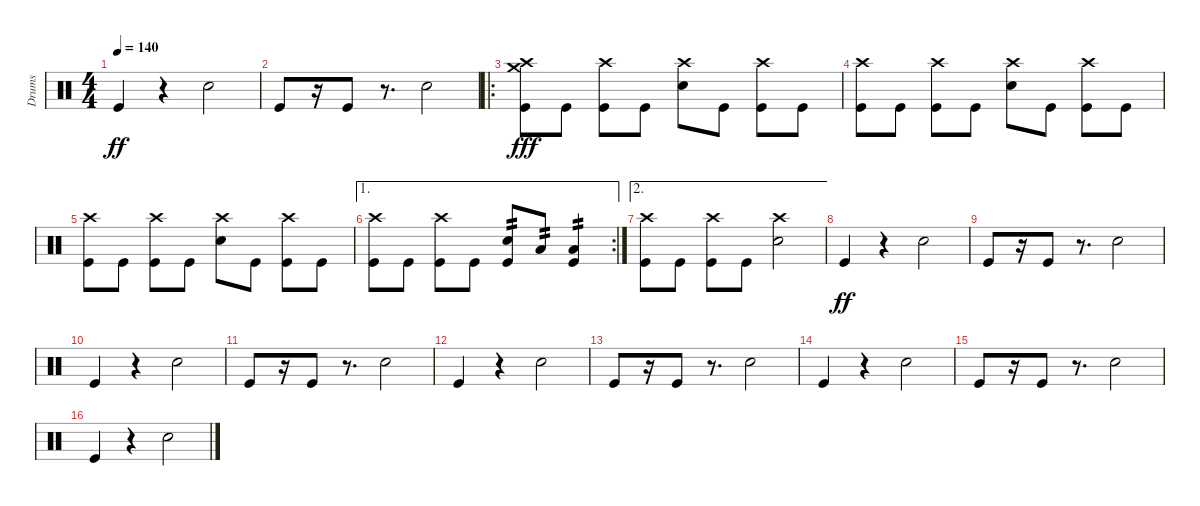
\track ("Drums" "Drums") {instrument percussion}
\staff {score}
\articulation defaults
\ts (4 4)
\tempo 140
\clef neutral
\ks c "Kick (hit)".4{dy ff}
r.4 "Electric Snare (hit)".2 |
"Kick (hit)".8 r.16 "Kick (hit)".8 r.8{d} "Electric Snare (hit)".2 |
\ro
("Crash medium (hit)" "Crash high (hit)" "Kick (hit)").8{dy fff} "Kick (hit)".8 ("Crash high (hit)" "Kick (hit)").8 "Kick (hit)".8 ("Crash high (hit)" "Electric Snare (hit)").8 "Kick (hit)".8 ("Crash high (hit)" "Kick (hit)").8 "Kick (hit)".8 |
("Crash high (hit)" "Kick (hit)").8 "Kick (hit)".8 ("Crash high (hit)" "Kick (hit)").8 "Kick (hit)".8 ("Crash high (hit)" "Electric Snare (hit)").8 "Kick (hit)".8 ("Crash high (hit)" "Kick (hit)").8 "Kick (hit)".8 |
("Crash high (hit)" "Kick (hit)").8 "Kick (hit)".8 ("Crash high (hit)" "Kick (hit)").8 "Kick (hit)".8 ("Crash high (hit)" "Electric Snare (hit)").8 "Kick (hit)".8 ("Crash high (hit)" "Kick (hit)").8 "Kick (hit)".8 |
\ae 1
\rc 2
("Crash high (hit)" "Kick (hit)").8 "Kick (hit)".8 ("Crash high (hit)" "Kick (hit)").8 "Kick (hit)".8 ("Electric Snare (hit)" "Kick (hit)").8{tp 2} "Low Floor Tom (hit)".8{tp 2} ("Low Floor Tom (hit)" "Kick (hit)").4{tp 2} |
\ae 2
("Crash high (hit)" "Kick (hit)").8 "Kick (hit)".8 ("Crash high (hit)" "Kick (hit)").8 "Kick (hit)".8 ("Crash high (hit)" "Electric Snare (hit)").2 |
"Kick (hit)".4{dy ff} r.4 "Electric Snare (hit)".2 |
"Kick (hit)".8 r.16 "Kick (hit)".8 r.8{d} "Electric Snare (hit)".2 |
"Kick (hit)".4 r.4 "Electric Snare (hit)".2 |
"Kick (hit)".8 r.16 "Kick (hit)".8 r.8{d} "Electric Snare (hit)".2 |
"Kick (hit)".4 r.4 "Electric Snare (hit)".2 |
"Kick (hit)".8 r.16 "Kick (hit)".8 r.8{d} "Electric Snare (hit)".2 |
"Kick (hit)".4 r.4 "Electric Snare (hit)".2 |
"Kick (hit)".8 r.16 "Kick (hit)".8 r.8{d} "Electric Snare (hit)".2 |
"Kick (hit)".4 r.4 "Electric Snare (hit)".2
